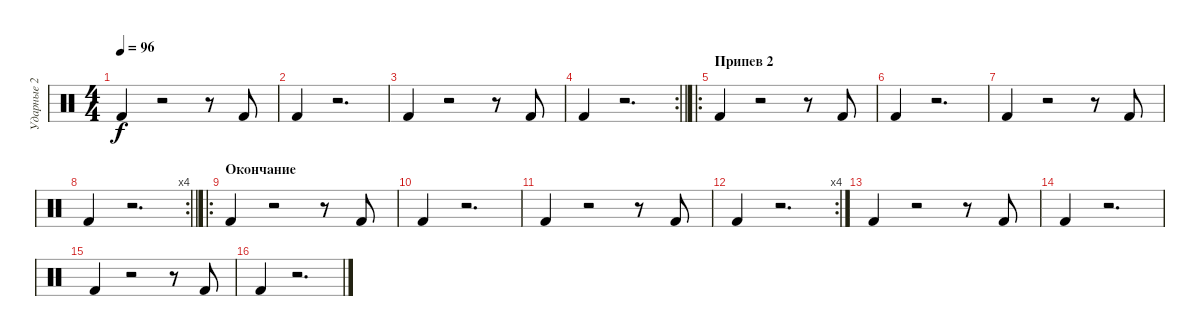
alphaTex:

\track ("Ударные 2" "Ударные 2") {instrument percussion}
\staff {score}
\articulation defaults
\ts (4 4)
\tempo 96
\clef neutral
\ks c "Kick (hit) 2".4{dy f}
r.2 r.8 "Kick (hit) 2".8 |
"Kick (hit) 2".4 r.2{d} |
"Kick (hit) 2".4 r.2 r.8 "Kick (hit) 2".8 |
\rc 2
\barLineRight lightlight "Kick (hit) 2".4
r.2{d} |
\ro
\section ("" "Припев 2")
"Kick (hit) 2".4 r.2 r.8 "Kick (hit) 2".8 |
"Kick (hit) 2".4 r.2{d} |
"Kick (hit) 2".4 r.2 r.8 "Kick (hit) 2".8 |
\rc 4
\barLineRight lightlight "Kick (hit) 2".4
r.2{d} |
\ro
\section ("" "Окончание")
"Kick (hit) 2".4 r.2 r.8 "Kick (hit) 2".8 |
"Kick (hit) 2".4 r.2{d} |
"Kick (hit) 2".4 r.2 r.8 "Kick (hit) 2".8 |
\rc 4 "Kick (hit) 2".4
r.2{d} |
"Kick (hit) 2".4{volume 8} r.2 r.8 "Kick (hit) 2".8 |
"Kick (hit) 2".4{volume 6} r.2{d} |
"Kick (hit) 2".4{volume 4} r.2 r.8 "Kick (hit) 2".8 |
"Kick (hit) 2".4{volume 2} r.2{d}
